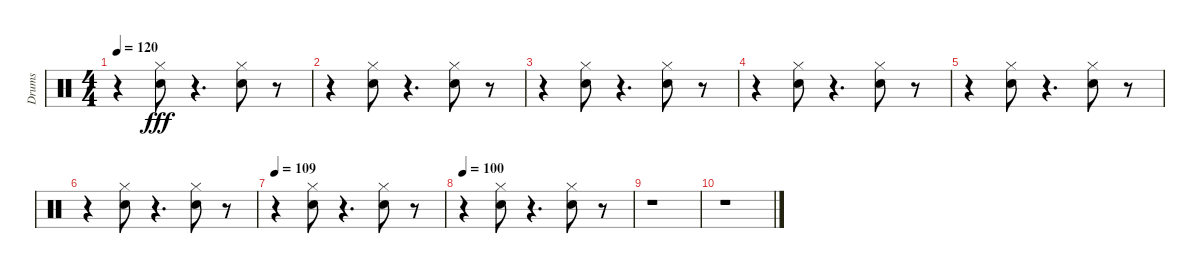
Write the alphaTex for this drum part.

\track ("Drums" "Drums") {instrument percussion}
\staff {score}
\articulation defaults
\ts (4 4)
\tempo 120
\clef neutral
\ks c
r.4{dy fff} ("Hi-Hat (closed)" "Electric Snare (hit)").8 r.4{d} ("Hi-Hat (closed)" "Electric Snare (hit)").8 r.8 |
r.4 ("Hi-Hat (closed)" "Electric Snare (hit)").8 r.4{d} ("Hi-Hat (closed)" "Electric Snare (hit)").8 r.8 |
r.4 ("Hi-Hat (closed)" "Electric Snare (hit)").8 r.4{d} ("Hi-Hat (closed)" "Electric Snare (hit)").8 r.8 |
r.4 ("Hi-Hat (closed)" "Electric Snare (hit)").8 r.4{d} ("Hi-Hat (closed)" "Electric Snare (hit)").8 r.8 |
r.4 ("Hi-Hat (closed)" "Electric Snare (hit)").8 r.4{d} ("Hi-Hat (closed)" "Electric Snare (hit)").8 r.8 |
r.4 ("Hi-Hat (closed)" "Electric Snare (hit)").8 r.4{d} ("Hi-Hat (closed)" "Electric Snare (hit)").8 r.8 |
\tempo 109
r.4 ("Hi-Hat (closed)" "Electric Snare (hit)").8 r.4{d} ("Hi-Hat (closed)" "Electric Snare (hit)").8 r.8 |
\tempo 100
r.4 ("Hi-Hat (closed)" "Electric Snare (hit)").8 r.4{d} ("Hi-Hat (closed)" "Electric Snare (hit)").8 r.8 |
r.1 |
r.1
